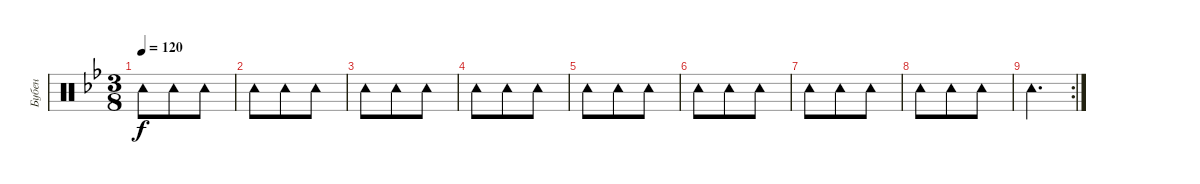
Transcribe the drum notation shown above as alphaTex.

\track ("Бубен" "Бубен") {instrument percussion}
\staff {score}
\articulation defaults
\ts (3 8)
\tempo 120
\clef neutral
\ks gminor "Tambourine (hit)".8{dy f} "Tambourine (hit)".8 "Tambourine (hit)".8
|
"Tambourine (hit)".8 "Tambourine (hit)".8 "Tambourine (hit)".8 |
"Tambourine (hit)".8 "Tambourine (hit)".8 "Tambourine (hit)".8 |
"Tambourine (hit)".8 "Tambourine (hit)".8 "Tambourine (hit)".8 |
"Tambourine (hit)".8 "Tambourine (hit)".8 "Tambourine (hit)".8 |
"Tambourine (hit)".8 "Tambourine (hit)".8 "Tambourine (hit)".8 |
"Tambourine (hit)".8 "Tambourine (hit)".8 "Tambourine (hit)".8 |
"Tambourine (hit)".8 "Tambourine (hit)".8 "Tambourine (hit)".8 |
\rc 2 "Tambourine (hit)".4{d}
